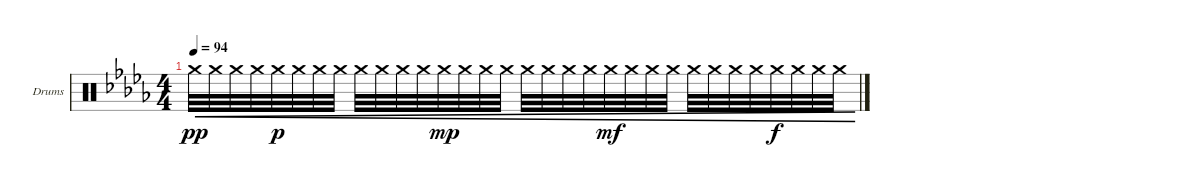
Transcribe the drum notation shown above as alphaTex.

\bracketExtendMode groupsimilarinstruments
\firstSystemTrackNameOrientation horizontal
\otherSystemsTrackNameOrientation horizontal
\track ("Drumkit" "Drums") {instrument percussion}
\staff {score}
\articulation defaults
\ts (4 4)
\tempo 94
\clef neutral
\ks bbminor "Crash medium (hit)".32{cre dy pp} "Crash medium (hit)".32{cre} "Crash medium (hit)".32{cre} "Crash medium (hit)".32{cre} "Crash medium (hit)".32{cre dy p} "Crash medium (hit)".32{cre} "Crash medium (hit)".32{cre} "Crash medium (hit)".32{cre} "Crash medium (hit)".32{cre} "Crash medium (hit)".32{cre} "Crash medium (hit)".32{cre} "Crash medium (hit)".32{cre} "Crash medium (hit)".32{cre dy mp} "Crash medium (hit)".32{cre} "Crash medium (hit)".32{cre} "Crash medium (hit)".32{cre} "Crash medium (hit)".32{cre} "Crash medium (hit)".32{cre} "Crash medium (hit)".32{cre} "Crash medium (hit)".32{cre} "Crash medium (hit)".32{cre dy mf} "Crash medium (hit)".32{cre} "Crash medium (hit)".32{cre} "Crash medium (hit)".32{cre} "Crash medium (hit)".32{cre} "Crash medium (hit)".32{cre} "Crash medium (hit)".32{cre} "Crash medium (hit)".32{cre} "Crash medium (hit)".32{cre dy f} "Crash medium (hit)".32{cre} "Crash medium (hit)".32{cre} "Crash medium (hit)".32{cre}
